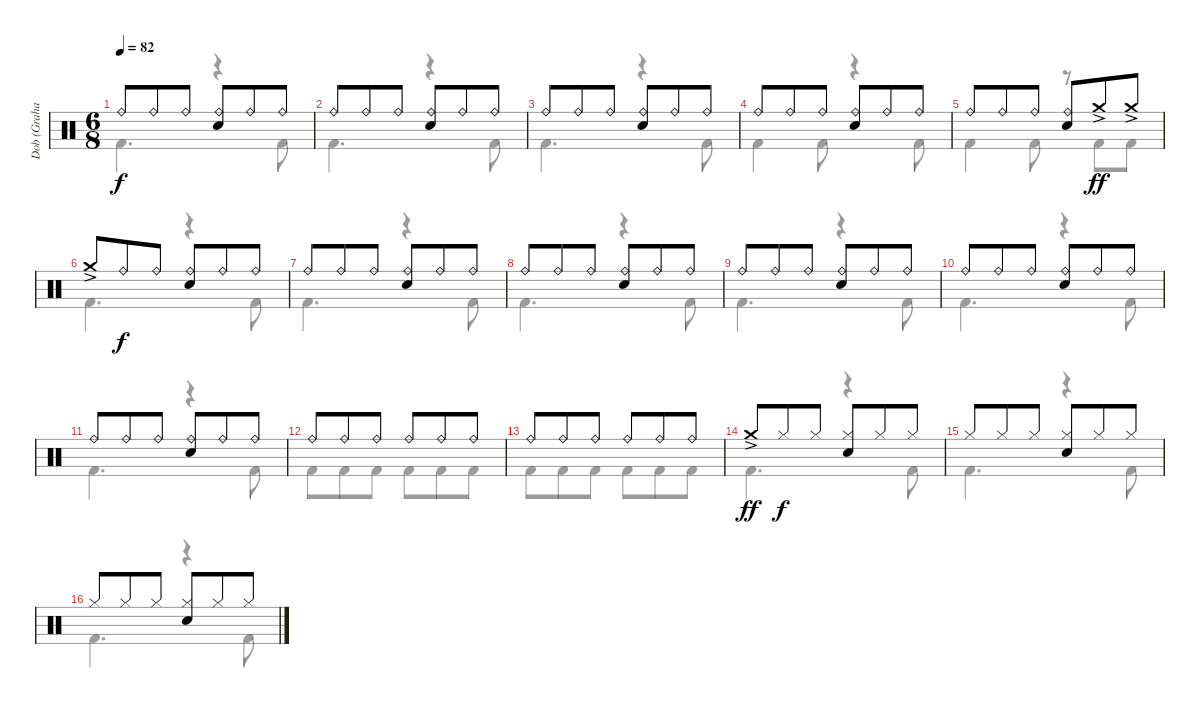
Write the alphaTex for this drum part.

\track ("Dob (Graham Walker)" "Dob (Graha") {instrument percussion}
\staff {score}
\articulation defaults
\voice
\ts (6 8)
\tempo 82
\clef neutral
\ks c "Ride (bell)".8{dy f} "Ride (bell)".8 "Ride (bell)".8
("Ride (bell)" "Electric Snare (hit)").8 "Ride (bell)".8 "Ride (bell)".8 |
"Ride (bell)".8 "Ride (bell)".8 "Ride (bell)".8 ("Ride (bell)" "Electric Snare (hit)").8 "Ride (bell)".8 "Ride (bell)".8 |
"Ride (bell)".8 "Ride (bell)".8 "Ride (bell)".8 ("Ride (bell)" "Electric Snare (hit)").8 "Ride (bell)".8 "Ride (bell)".8 |
"Ride (bell)".8 "Ride (bell)".8 "Ride (bell)".8 ("Ride (bell)" "Electric Snare (hit)").8 "Ride (bell)".8 "Ride (bell)".8 |
"Ride (bell)".8 "Ride (bell)".8 "Ride (bell)".8 ("Ride (bell)" "Electric Snare (hit)").8 "Crash medium (hit)"{ac}.8{dy ff} "Crash medium (hit)"{ac}.8 |
"Crash medium (hit)"{ac}.8 "Ride (bell)".8{dy f} "Ride (bell)".8 ("Ride (bell)" "Electric Snare (hit)").8 "Ride (bell)".8 "Ride (bell)".8 |
"Ride (bell)".8 "Ride (bell)".8 "Ride (bell)".8 ("Ride (bell)" "Electric Snare (hit)").8 "Ride (bell)".8 "Ride (bell)".8 |
"Ride (bell)".8 "Ride (bell)".8 "Ride (bell)".8 ("Ride (bell)" "Electric Snare (hit)").8 "Ride (bell)".8 "Ride (bell)".8 |
"Ride (bell)".8 "Ride (bell)".8 "Ride (bell)".8 ("Ride (bell)" "Electric Snare (hit)").8 "Ride (bell)".8 "Ride (bell)".8 |
"Ride (bell)".8 "Ride (bell)".8 "Ride (bell)".8 ("Ride (bell)" "Electric Snare (hit)").8 "Ride (bell)".8 "Ride (bell)".8 |
"Ride (bell)".8 "Ride (bell)".8 "Ride (bell)".8 ("Ride (bell)" "Electric Snare (hit)").8 "Ride (bell)".8 "Ride (bell)".8 |
"Ride (bell)".8 "Ride (bell)".8 "Ride (bell)".8 "Ride (bell)".8 "Ride (bell)".8 "Ride (bell)".8 |
"Ride (bell)".8 "Ride (bell)".8 "Ride (bell)".8 "Ride (bell)".8 "Ride (bell)".8 "Ride (bell)".8 |
"Crash medium (hit)"{ac}.8{dy ff} "Hi-Hat (closed)".8{dy f} "Hi-Hat (closed)".8 ("Hi-Hat (closed)" "Electric Snare (hit)").8 "Hi-Hat (closed)".8 "Hi-Hat (closed)".8 |
"Hi-Hat (closed)".8 "Hi-Hat (closed)".8 "Hi-Hat (closed)".8 ("Hi-Hat (closed)" "Electric Snare (hit)").8 "Hi-Hat (closed)".8 "Hi-Hat (closed)".8 |
"Hi-Hat (closed)".8 "Hi-Hat (closed)".8 "Hi-Hat (closed)".8 ("Hi-Hat (closed)" "Electric Snare (hit)").8 "Hi-Hat (closed)".8 "Hi-Hat (closed)".8
\voice
\clef neutral
\ottava regular
\simile none
\ks c "Kick (hit) 2".4{d dy f}
r.4 "Kick (hit) 2".8 |
"Kick (hit) 2".4{d} r.4 "Kick (hit) 2".8 |
"Kick (hit) 2".4{d} r.4 "Kick (hit) 2".8 |
"Kick (hit) 2".4 "Kick (hit) 2".8 r.4 "Kick (hit) 2".8 |
"Kick (hit) 2".4 "Kick (hit) 2".8 r.8 "Kick (hit) 2".8 "Kick (hit) 2".8 |
"Kick (hit) 2".4{d} r.4 "Kick (hit) 2".8 |
"Kick (hit) 2".4{d} r.4 "Kick (hit) 2".8 |
"Kick (hit) 2".4{d} r.4 "Kick (hit) 2".8 |
"Kick (hit) 2".4{d} r.4 "Kick (hit) 2".8 |
"Kick (hit) 2".4{d} r.4 "Kick (hit) 2".8 |
"Kick (hit) 2".4{d} r.4 "Kick (hit) 2".8 |
"Kick (hit) 2".8 "Kick (hit) 2".8 "Kick (hit) 2".8 "Kick (hit) 2".8 "Kick (hit) 2".8 "Kick (hit) 2".8 |
"Kick (hit) 2".8 "Kick (hit) 2".8 "Kick (hit) 2".8 "Kick (hit) 2".8 "Kick (hit) 2".8 "Kick (hit) 2".8 |
"Kick (hit) 2".4{d} r.4 "Kick (hit) 2".8 |
"Kick (hit) 2".4{d} r.4 "Kick (hit) 2".8 |
"Kick (hit) 2".4{d} r.4 "Kick (hit) 2".8
